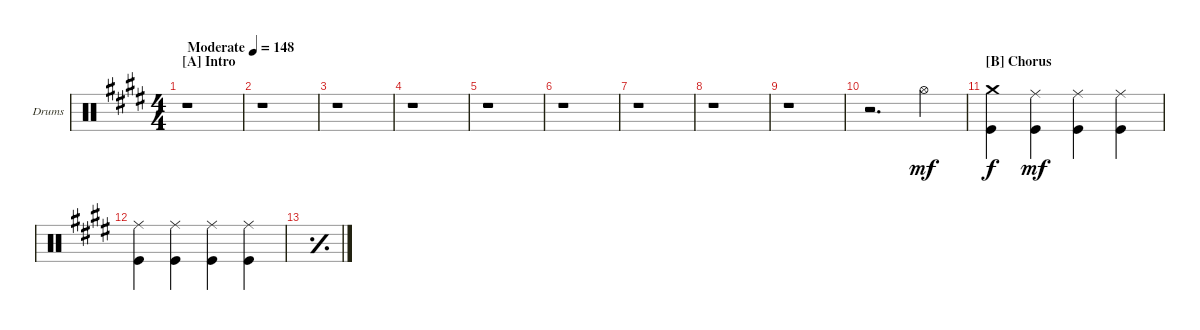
\bracketExtendMode groupsimilarinstruments
\firstSystemTrackNameOrientation horizontal
\otherSystemsTrackNameOrientation horizontal
\track ("Drums" "Drums") {instrument percussion}
\staff {score}
\articulation defaults
\ts (4 4)
\section ("A" "Intro")
\tempo (148 "Moderate")
\clef neutral
\ks e
r.1{dy mf} |
r.1 |
\beaming (8 2 2 2 2)
r.1 |
r.1 |
r.1 |
r.1 |
r.1 |
r.1 |
r.1 |
r.2{d} "Hi-Hat (open)".4 |
\section ("B" "Chorus")
("Kick (hit)" "Crash medium (hit)").4{dy f} ("Kick (hit)" "Ride (middle)").4{dy mf} ("Kick (hit)" "Ride (middle)").4 ("Kick (hit)" "Ride (middle)").4 |
("Kick (hit)" "Ride (middle)").4 ("Kick (hit)" "Ride (middle)").4 ("Kick (hit)" "Ride (middle)").4 ("Kick (hit)" "Ride (middle)").4 |
\simile simple
